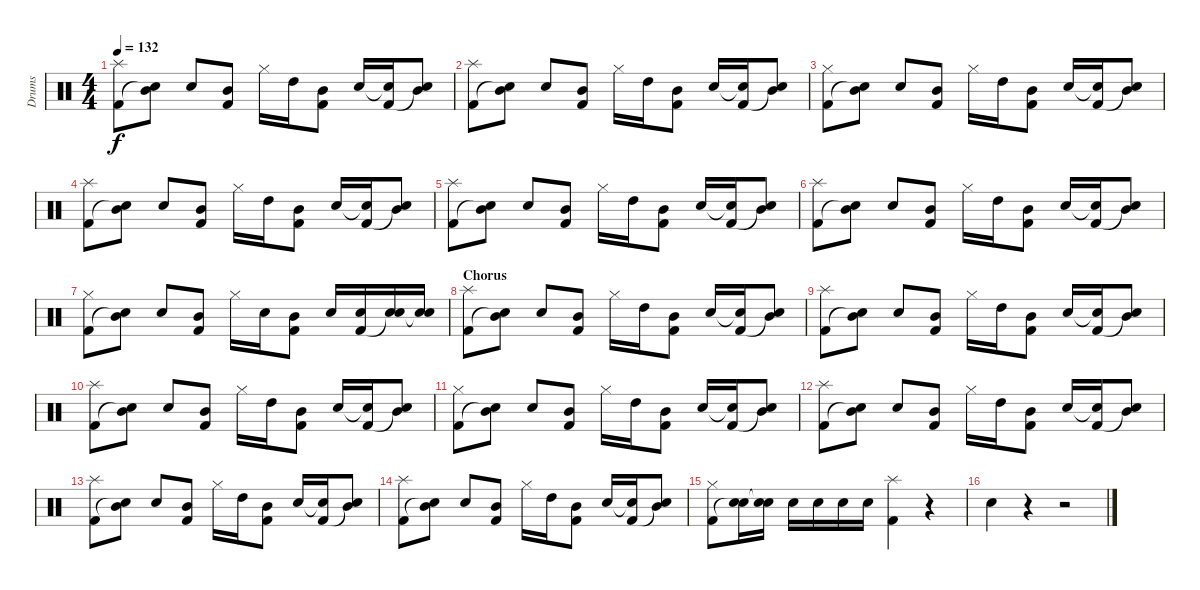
\track ("Drums" "Drums") {instrument percussion}
\staff {score}
\articulation defaults
\ts (4 4)
\tempo 132
\clef neutral
\ks c
("Splash (hit)" "Kick (hit) 2").8{dy f} ("Mid Tom (hit)" "Snare (hit)"{t}).8 "Electric Snare (hit)".8 ("Mid Tom (hit)" "Kick (hit) 2").8 "Hi-Hat (closed)".16 "High Tom (hit)".16 ("Mid Tom (hit)" "Kick (hit) 2").8 "Electric Snare (hit)".16 ("Snare (hit)"{t} "Kick (hit) 2").16 ("Mid Tom (hit)" "Snare (hit)"{t}).8 |
("Splash (hit)" "Kick (hit) 2").8 ("Mid Tom (hit)" "Snare (hit)"{t}).8 "Electric Snare (hit)".8 ("Mid Tom (hit)" "Kick (hit) 2").8 "Hi-Hat (closed)".16 "High Tom (hit)".16 ("Mid Tom (hit)" "Kick (hit) 2").8 "Electric Snare (hit)".16 ("Snare (hit)"{t} "Kick (hit) 2").16 ("Mid Tom (hit)" "Snare (hit)"{t}).8 |
("Hi-Hat (closed)" "Kick (hit) 2").8 ("Mid Tom (hit)" "Snare (hit)"{t}).8 "Electric Snare (hit)".8 ("Mid Tom (hit)" "Kick (hit) 2").8 "Hi-Hat (closed)".16 "High Tom (hit)".16 ("Mid Tom (hit)" "Kick (hit) 2").8 "Electric Snare (hit)".16 ("Snare (hit)"{t} "Kick (hit) 2").16 ("Mid Tom (hit)" "Snare (hit)"{t}).8 |
("Splash (hit)" "Kick (hit) 2").8 ("Mid Tom (hit)" "Snare (hit)"{t}).8 "Electric Snare (hit)".8 ("Mid Tom (hit)" "Kick (hit) 2").8 "Hi-Hat (closed)".16 "High Tom (hit)".16 ("Mid Tom (hit)" "Kick (hit) 2").8 "Electric Snare (hit)".16 ("Snare (hit)"{t} "Kick (hit) 2").16 ("Mid Tom (hit)" "Snare (hit)"{t}).8 |
("Splash (hit)" "Kick (hit) 2").8 ("Mid Tom (hit)" "Snare (hit)"{t}).8 "Electric Snare (hit)".8 ("Mid Tom (hit)" "Kick (hit) 2").8 "Hi-Hat (closed)".16 "High Tom (hit)".16 ("Mid Tom (hit)" "Kick (hit) 2").8 "Electric Snare (hit)".16 ("Snare (hit)"{t} "Kick (hit) 2").16 ("Mid Tom (hit)" "Snare (hit)"{t}).8 |
("Splash (hit)" "Kick (hit) 2").8 ("Mid Tom (hit)" "Snare (hit)"{t}).8 "Electric Snare (hit)".8 ("Mid Tom (hit)" "Kick (hit) 2").8 "Hi-Hat (closed)".16 "High Tom (hit)".16 ("Mid Tom (hit)" "Kick (hit) 2").8 "Electric Snare (hit)".16 ("Snare (hit)"{t} "Kick (hit) 2").16 ("Mid Tom (hit)" "Snare (hit)"{t}).8 |
("Hi-Hat (closed)" "Kick (hit) 2").8 ("Mid Tom (hit)" "Snare (hit)"{t}).8 "Electric Snare (hit)".8 ("Mid Tom (hit)" "Kick (hit) 2").8 "Hi-Hat (closed)".16 "Electric Snare (hit)".16 ("Mid Tom (hit)" "Kick (hit) 2").8 "Electric Snare (hit)".16 ("Electric Snare (hit)" "Kick (hit) 2").16 ("Electric Snare (hit)" "Snare (hit)"{t}).16 ("Electric Snare (hit)" "Snare (hit)"{t}).16 |
\section ("" "Chorus")
("Splash (hit)" "Kick (hit) 2").8 ("Mid Tom (hit)" "Snare (hit)"{t}).8 "Electric Snare (hit)".8 ("Mid Tom (hit)" "Kick (hit) 2").8 "Hi-Hat (closed)".16 "High Tom (hit)".16 ("Mid Tom (hit)" "Kick (hit) 2").8 "Electric Snare (hit)".16 ("Snare (hit)"{t} "Kick (hit) 2").16 ("Mid Tom (hit)" "Snare (hit)"{t}).8 |
("Splash (hit)" "Kick (hit) 2").8 ("Mid Tom (hit)" "Snare (hit)"{t}).8 "Electric Snare (hit)".8 ("Mid Tom (hit)" "Kick (hit) 2").8 "Hi-Hat (closed)".16 "High Tom (hit)".16 ("Mid Tom (hit)" "Kick (hit) 2").8 "Electric Snare (hit)".16 ("Snare (hit)"{t} "Kick (hit) 2").16 ("Mid Tom (hit)" "Snare (hit)"{t}).8 |
("Splash (hit)" "Kick (hit) 2").8 ("Mid Tom (hit)" "Snare (hit)"{t}).8 "Electric Snare (hit)".8 ("Mid Tom (hit)" "Kick (hit) 2").8 "Hi-Hat (closed)".16 "High Tom (hit)".16 ("Mid Tom (hit)" "Kick (hit) 2").8 "Electric Snare (hit)".16 ("Snare (hit)"{t} "Kick (hit) 2").16 ("Mid Tom (hit)" "Snare (hit)"{t}).8 |
("Hi-Hat (closed)" "Kick (hit) 2").8 ("Mid Tom (hit)" "Snare (hit)"{t}).8 "Electric Snare (hit)".8 ("Mid Tom (hit)" "Kick (hit) 2").8 "Hi-Hat (closed)".16 "High Tom (hit)".16 ("Mid Tom (hit)" "Kick (hit) 2").8 "Electric Snare (hit)".16 ("Snare (hit)"{t} "Kick (hit) 2").16 ("Mid Tom (hit)" "Snare (hit)"{t}).8 |
("Splash (hit)" "Kick (hit) 2").8 ("Mid Tom (hit)" "Snare (hit)"{t}).8 "Electric Snare (hit)".8 ("Mid Tom (hit)" "Kick (hit) 2").8 "Hi-Hat (closed)".16 "High Tom (hit)".16 ("Mid Tom (hit)" "Kick (hit) 2").8 "Electric Snare (hit)".16 ("Snare (hit)"{t} "Kick (hit) 2").16 ("Mid Tom (hit)" "Snare (hit)"{t}).8 |
("Splash (hit)" "Kick (hit) 2").8 ("Mid Tom (hit)" "Snare (hit)"{t}).8 "Electric Snare (hit)".8 ("Mid Tom (hit)" "Kick (hit) 2").8 "Hi-Hat (closed)".16 "High Tom (hit)".16 ("Mid Tom (hit)" "Kick (hit) 2").8 "Electric Snare (hit)".16 ("Snare (hit)"{t} "Kick (hit) 2").16 ("Mid Tom (hit)" "Snare (hit)"{t}).8 |
("Splash (hit)" "Kick (hit) 2").8 ("Mid Tom (hit)" "Snare (hit)"{t}).8 "Electric Snare (hit)".8 ("Mid Tom (hit)" "Kick (hit) 2").8 "Hi-Hat (closed)".16 "High Tom (hit)".16 ("Mid Tom (hit)" "Kick (hit) 2").8 "Electric Snare (hit)".16 ("Snare (hit)"{t} "Kick (hit) 2").16 ("Mid Tom (hit)" "Snare (hit)"{t}).8 |
("Hi-Hat (closed)" "Kick (hit) 2").8 ("Electric Snare (hit)" "Snare (hit)"{t}).16 ("Electric Snare (hit)" "Snare (hit)"{t}).16 "Electric Snare (hit)".16 "Electric Snare (hit)".16 "Electric Snare (hit)".16 "Electric Snare (hit)".16 ("Splash (hit)" "Kick (hit) 2").4 r.4 |
"Electric Snare (hit)".4 r.4 r.2
